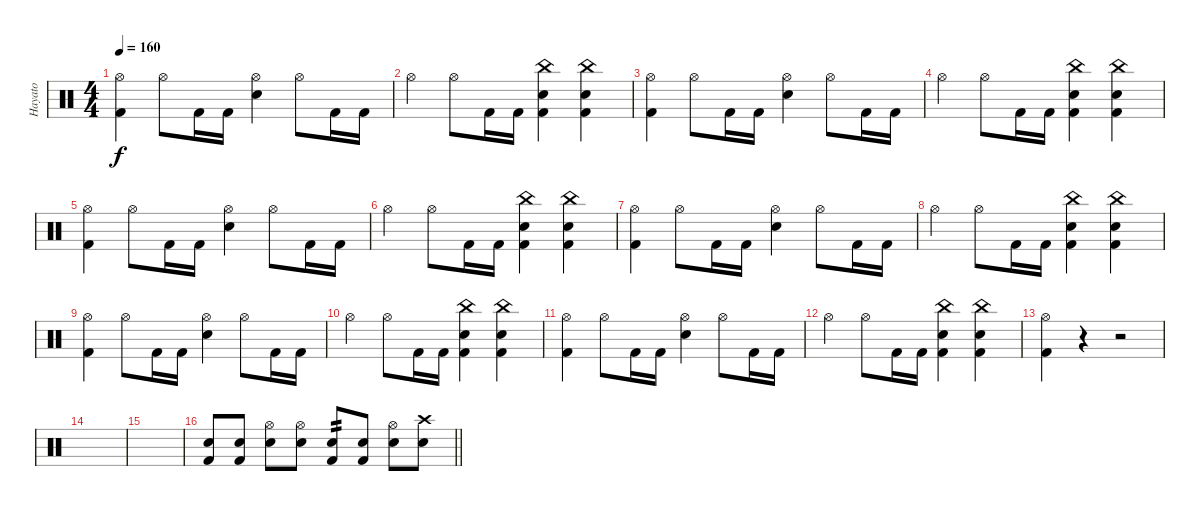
\track ("Hayato" "Hayato") {instrument percussion}
\staff {score}
\articulation defaults
\ts (4 4)
\tempo 160
\clef neutral
\ks c
("Hi-Hat (open)" "Kick (hit) 2").4{dy f} "Hi-Hat (open)".8 "Kick (hit) 2".16 "Kick (hit) 2".16 ("Hi-Hat (open)" "Snare (hit) 2").4 "Hi-Hat (open)".8 "Kick (hit) 2".16 "Kick (hit) 2".16 |
"Hi-Hat (open)".4 "Hi-Hat (open)".8 "Kick (hit) 2".16 "Kick (hit) 2".16 ("China (hit)" "Snare (hit) 2" "Kick (hit) 2").4 ("China (hit)" "Snare (hit) 2" "Kick (hit) 2").4 |
("Hi-Hat (open)" "Kick (hit) 2").4 "Hi-Hat (open)".8 "Kick (hit) 2".16 "Kick (hit) 2".16 ("Hi-Hat (open)" "Snare (hit) 2").4 "Hi-Hat (open)".8 "Kick (hit) 2".16 "Kick (hit) 2".16 |
"Hi-Hat (open)".4 "Hi-Hat (open)".8 "Kick (hit) 2".16 "Kick (hit) 2".16 ("China (hit)" "Snare (hit) 2" "Kick (hit) 2").4 ("China (hit)" "Snare (hit) 2" "Kick (hit) 2").4 |
("Hi-Hat (open)" "Kick (hit) 2").4 "Hi-Hat (open)".8 "Kick (hit) 2".16 "Kick (hit) 2".16 ("Hi-Hat (open)" "Snare (hit) 2").4 "Hi-Hat (open)".8 "Kick (hit) 2".16 "Kick (hit) 2".16 |
"Hi-Hat (open)".4 "Hi-Hat (open)".8 "Kick (hit) 2".16 "Kick (hit) 2".16 ("China (hit)" "Snare (hit) 2" "Kick (hit) 2").4 ("China (hit)" "Snare (hit) 2" "Kick (hit) 2").4 |
("Hi-Hat (open)" "Kick (hit) 2").4 "Hi-Hat (open)".8 "Kick (hit) 2".16 "Kick (hit) 2".16 ("Hi-Hat (open)" "Snare (hit) 2").4 "Hi-Hat (open)".8 "Kick (hit) 2".16 "Kick (hit) 2".16 |
"Hi-Hat (open)".4 "Hi-Hat (open)".8 "Kick (hit) 2".16 "Kick (hit) 2".16 ("China (hit)" "Snare (hit) 2" "Kick (hit) 2").4 ("China (hit)" "Snare (hit) 2" "Kick (hit) 2").4 |
("Hi-Hat (open)" "Kick (hit) 2").4 "Hi-Hat (open)".8 "Kick (hit) 2".16 "Kick (hit) 2".16 ("Hi-Hat (open)" "Snare (hit) 2").4 "Hi-Hat (open)".8 "Kick (hit) 2".16 "Kick (hit) 2".16 |
"Hi-Hat (open)".4 "Hi-Hat (open)".8 "Kick (hit) 2".16 "Kick (hit) 2".16 ("China (hit)" "Snare (hit) 2" "Kick (hit) 2").4 ("China (hit)" "Snare (hit) 2" "Kick (hit) 2").4 |
("Hi-Hat (open)" "Kick (hit) 2").4 "Hi-Hat (open)".8 "Kick (hit) 2".16 "Kick (hit) 2".16 ("Hi-Hat (open)" "Snare (hit) 2").4 "Hi-Hat (open)".8 "Kick (hit) 2".16 "Kick (hit) 2".16 |
"Hi-Hat (open)".4 "Hi-Hat (open)".8 "Kick (hit) 2".16 "Kick (hit) 2".16 ("China (hit)" "Snare (hit) 2" "Kick (hit) 2").4 ("China (hit)" "Snare (hit) 2" "Kick (hit) 2").4 |
("Hi-Hat (open)" "Kick (hit) 2").4 r.4 r.2 |
|
|
\barLineRight lightlight
("Snare (hit) 2" "Kick (hit) 2").8 ("Snare (hit) 2" "Kick (hit) 2").8 ("Hi-Hat (open)" "Snare (hit) 2").8 ("Hi-Hat (open)" "Snare (hit) 2").8 ("Snare (hit) 2" "Kick (hit) 2").8{tp 2} ("Snare (hit) 2" "Kick (hit) 2").8 ("Hi-Hat (open)" "Snare (hit) 2").8 ("Crash high (hit)" "Snare (hit) 2").8
